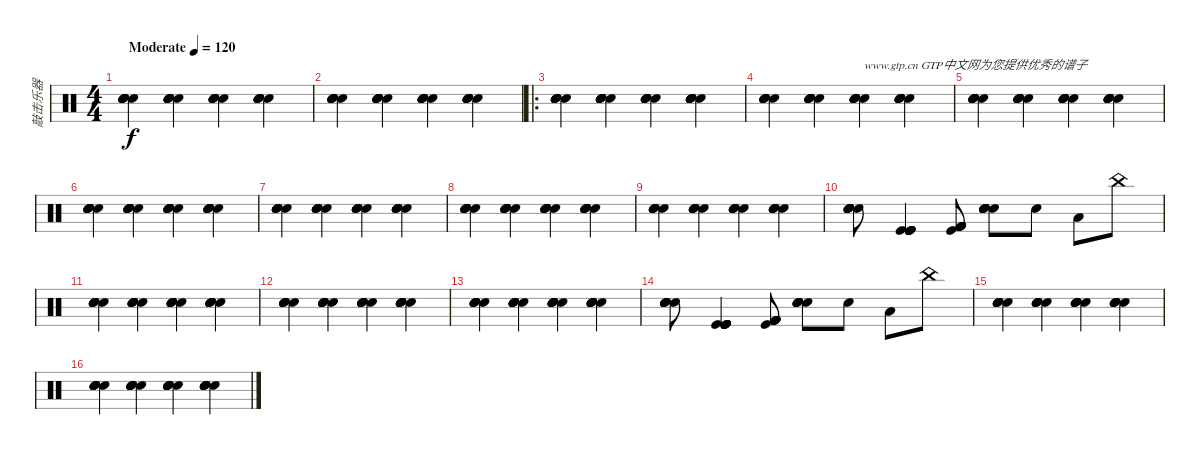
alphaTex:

\track ("敲击乐器" "敲击乐器") {instrument percussion}
\staff {score}
\articulation defaults
\ts (4 4)
\tempo (120 "Moderate")
\clef neutral
\ks c
("Hand Clap (hit)" "Hand Clap (hit)" "Hand Clap (hit)" "Hand Clap (hit)" "Hand Clap (hit)" "Hand Clap (hit)").4{dy f} ("Snare (hit) 2" "Snare (hit) 2" "Snare (hit) 2" "Snare (hit) 2" "Snare (hit) 2" "Snare (hit) 2").4 ("Hand Clap (hit)" "Hand Clap (hit)" "Hand Clap (hit)" "Hand Clap (hit)" "Hand Clap (hit)" "Hand Clap (hit)").4 ("Snare (hit) 2" "Snare (hit) 2" "Snare (hit) 2" "Snare (hit) 2" "Snare (hit) 2" "Snare (hit) 2").4 |
("Hand Clap (hit)" "Hand Clap (hit)" "Hand Clap (hit)" "Hand Clap (hit)" "Hand Clap (hit)" "Hand Clap (hit)").4 ("Snare (hit) 2" "Snare (hit) 2" "Snare (hit) 2" "Snare (hit) 2" "Snare (hit) 2" "Snare (hit) 2").4 ("Hand Clap (hit)" "Hand Clap (hit)" "Hand Clap (hit)" "Hand Clap (hit)" "Hand Clap (hit)" "Hand Clap (hit)").4 ("Snare (hit) 2" "Snare (hit) 2" "Snare (hit) 2" "Snare (hit) 2" "Snare (hit) 2" "Snare (hit) 2").4 |
\ro
("Hand Clap (hit)" "Hand Clap (hit)" "Hand Clap (hit)" "Hand Clap (hit)" "Hand Clap (hit)" "Hand Clap (hit)").4 ("Snare (hit) 2" "Snare (hit) 2" "Snare (hit) 2" "Snare (hit) 2" "Snare (hit) 2" "Snare (hit) 2").4 ("Hand Clap (hit)" "Hand Clap (hit)" "Hand Clap (hit)" "Hand Clap (hit)" "Hand Clap (hit)" "Hand Clap (hit)").4 ("Snare (hit) 2" "Snare (hit) 2" "Snare (hit) 2" "Snare (hit) 2" "Snare (hit) 2" "Snare (hit) 2").4 |
("Hand Clap (hit)" "Hand Clap (hit)" "Hand Clap (hit)" "Hand Clap (hit)" "Hand Clap (hit)" "Hand Clap (hit)").4 ("Snare (hit) 2" "Snare (hit) 2" "Snare (hit) 2" "Snare (hit) 2" "Snare (hit) 2" "Snare (hit) 2").4 ("Hand Clap (hit)" "Hand Clap (hit)" "Hand Clap (hit)" "Hand Clap (hit)" "Hand Clap (hit)" "Hand Clap (hit)").4{txt "www.gtp.cn GTP中文网为您提供优秀的谱子"} ("Snare (hit) 2" "Snare (hit) 2" "Snare (hit) 2" "Snare (hit) 2" "Snare (hit) 2" "Snare (hit) 2").4 |
("Hand Clap (hit)" "Hand Clap (hit)" "Hand Clap (hit)" "Hand Clap (hit)" "Hand Clap (hit)" "Hand Clap (hit)").4 ("Snare (hit) 2" "Snare (hit) 2" "Snare (hit) 2" "Snare (hit) 2" "Snare (hit) 2" "Snare (hit) 2").4 ("Hand Clap (hit)" "Hand Clap (hit)" "Hand Clap (hit)" "Hand Clap (hit)" "Hand Clap (hit)" "Hand Clap (hit)").4 ("Snare (hit) 2" "Snare (hit) 2" "Snare (hit) 2" "Snare (hit) 2" "Snare (hit) 2" "Snare (hit) 2").4 |
("Hand Clap (hit)" "Hand Clap (hit)" "Hand Clap (hit)" "Hand Clap (hit)" "Hand Clap (hit)" "Hand Clap (hit)").4 ("Snare (hit) 2" "Snare (hit) 2" "Snare (hit) 2" "Snare (hit) 2" "Snare (hit) 2" "Snare (hit) 2").4 ("Hand Clap (hit)" "Hand Clap (hit)" "Hand Clap (hit)" "Hand Clap (hit)" "Hand Clap (hit)" "Hand Clap (hit)").4 ("Snare (hit) 2" "Snare (hit) 2" "Snare (hit) 2" "Snare (hit) 2" "Snare (hit) 2" "Snare (hit) 2").4 |
("Hand Clap (hit)" "Hand Clap (hit)" "Hand Clap (hit)" "Hand Clap (hit)" "Hand Clap (hit)" "Hand Clap (hit)").4 ("Snare (hit) 2" "Snare (hit) 2" "Snare (hit) 2" "Snare (hit) 2" "Snare (hit) 2" "Snare (hit) 2").4 ("Hand Clap (hit)" "Hand Clap (hit)" "Hand Clap (hit)" "Hand Clap (hit)" "Hand Clap (hit)" "Hand Clap (hit)").4 ("Snare (hit) 2" "Snare (hit) 2" "Snare (hit) 2" "Snare (hit) 2" "Snare (hit) 2" "Snare (hit) 2").4 |
("Hand Clap (hit)" "Hand Clap (hit)" "Hand Clap (hit)" "Hand Clap (hit)" "Hand Clap (hit)" "Hand Clap (hit)").4 ("Snare (hit) 2" "Snare (hit) 2" "Snare (hit) 2" "Snare (hit) 2" "Snare (hit) 2" "Snare (hit) 2").4 ("Hand Clap (hit)" "Hand Clap (hit)" "Hand Clap (hit)" "Hand Clap (hit)" "Hand Clap (hit)" "Hand Clap (hit)").4 ("Snare (hit) 2" "Snare (hit) 2" "Snare (hit) 2" "Snare (hit) 2" "Snare (hit) 2" "Snare (hit) 2").4 |
("Hand Clap (hit)" "Hand Clap (hit)" "Hand Clap (hit)" "Hand Clap (hit)" "Hand Clap (hit)" "Hand Clap (hit)").4 ("Snare (hit) 2" "Snare (hit) 2" "Snare (hit) 2" "Snare (hit) 2" "Snare (hit) 2" "Snare (hit) 2").4 ("Hand Clap (hit)" "Hand Clap (hit)" "Hand Clap (hit)" "Hand Clap (hit)" "Hand Clap (hit)" "Hand Clap (hit)").4 ("Snare (hit) 2" "Snare (hit) 2" "Snare (hit) 2" "Snare (hit) 2" "Snare (hit) 2" "Snare (hit) 2").4 |
("Snare (hit) 2" "Hand Clap (hit)" "Hand Clap (hit)" "Hand Clap (hit)" "Hand Clap (hit)" "Hand Clap (hit)").8 ("Kick (hit)" "Kick (hit)" "Kick (hit)" "Kick (hit)" "Kick (hit)" "Kick (hit)").4 ("Kick (hit) 2" "Kick (hit) 2" "Kick (hit) 2" "Kick (hit)" "Kick (hit) 2" "Kick (hit) 2").8 ("Snare (hit) 2" "Snare (hit) 2" "Snare (hit) 2" "Snare (hit) 2" "Snare (hit) 2" "Snare (hit) 2").8 "Snare (hit) 2".8 "Low Floor Tom (hit)".8 "China (hit)".8 |
("Hand Clap (hit)" "Hand Clap (hit)" "Hand Clap (hit)" "Hand Clap (hit)" "Hand Clap (hit)" "Hand Clap (hit)").4 ("Snare (hit) 2" "Snare (hit) 2" "Snare (hit) 2" "Snare (hit) 2" "Snare (hit) 2" "Snare (hit) 2").4 ("Hand Clap (hit)" "Hand Clap (hit)" "Hand Clap (hit)" "Hand Clap (hit)" "Hand Clap (hit)" "Hand Clap (hit)").4 ("Snare (hit) 2" "Snare (hit) 2" "Snare (hit) 2" "Snare (hit) 2" "Snare (hit) 2" "Snare (hit) 2").4 |
("Hand Clap (hit)" "Hand Clap (hit)" "Hand Clap (hit)" "Hand Clap (hit)" "Hand Clap (hit)" "Hand Clap (hit)").4 ("Snare (hit) 2" "Snare (hit) 2" "Snare (hit) 2" "Snare (hit) 2" "Snare (hit) 2" "Snare (hit) 2").4 ("Hand Clap (hit)" "Hand Clap (hit)" "Hand Clap (hit)" "Hand Clap (hit)" "Hand Clap (hit)" "Hand Clap (hit)").4 ("Snare (hit) 2" "Snare (hit) 2" "Snare (hit) 2" "Snare (hit) 2" "Snare (hit) 2" "Snare (hit) 2").4 |
("Hand Clap (hit)" "Hand Clap (hit)" "Hand Clap (hit)" "Hand Clap (hit)" "Hand Clap (hit)" "Hand Clap (hit)").4 ("Snare (hit) 2" "Snare (hit) 2" "Snare (hit) 2" "Snare (hit) 2" "Snare (hit) 2" "Snare (hit) 2").4 ("Hand Clap (hit)" "Hand Clap (hit)" "Hand Clap (hit)" "Hand Clap (hit)" "Hand Clap (hit)" "Hand Clap (hit)").4 ("Snare (hit) 2" "Snare (hit) 2" "Snare (hit) 2" "Snare (hit) 2" "Snare (hit) 2" "Snare (hit) 2").4 |
("Snare (hit) 2" "Hand Clap (hit)" "Hand Clap (hit)" "Hand Clap (hit)" "Hand Clap (hit)" "Hand Clap (hit)").8 ("Kick (hit)" "Kick (hit)" "Kick (hit)" "Kick (hit)" "Kick (hit)" "Kick (hit)").4 ("Kick (hit) 2" "Kick (hit) 2" "Kick (hit) 2" "Kick (hit)" "Kick (hit) 2" "Kick (hit) 2").8 ("Snare (hit) 2" "Snare (hit) 2" "Snare (hit) 2" "Snare (hit) 2" "Snare (hit) 2" "Snare (hit) 2").8 "Snare (hit) 2".8 "Low Floor Tom (hit)".8 "China (hit)".8 |
("Hand Clap (hit)" "Hand Clap (hit)" "Hand Clap (hit)" "Hand Clap (hit)" "Hand Clap (hit)" "Hand Clap (hit)").4 ("Snare (hit) 2" "Snare (hit) 2" "Snare (hit) 2" "Snare (hit) 2" "Snare (hit) 2" "Snare (hit) 2").4 ("Hand Clap (hit)" "Hand Clap (hit)" "Hand Clap (hit)" "Hand Clap (hit)" "Hand Clap (hit)" "Hand Clap (hit)").4 ("Snare (hit) 2" "Snare (hit) 2" "Snare (hit) 2" "Snare (hit) 2" "Snare (hit) 2" "Snare (hit) 2").4 |
("Hand Clap (hit)" "Hand Clap (hit)" "Hand Clap (hit)" "Hand Clap (hit)" "Hand Clap (hit)" "Hand Clap (hit)").4 ("Snare (hit) 2" "Snare (hit) 2" "Snare (hit) 2" "Snare (hit) 2" "Snare (hit) 2" "Snare (hit) 2").4 ("Hand Clap (hit)" "Hand Clap (hit)" "Hand Clap (hit)" "Hand Clap (hit)" "Hand Clap (hit)" "Hand Clap (hit)").4 ("Snare (hit) 2" "Snare (hit) 2" "Snare (hit) 2" "Snare (hit) 2" "Snare (hit) 2" "Snare (hit) 2").4
